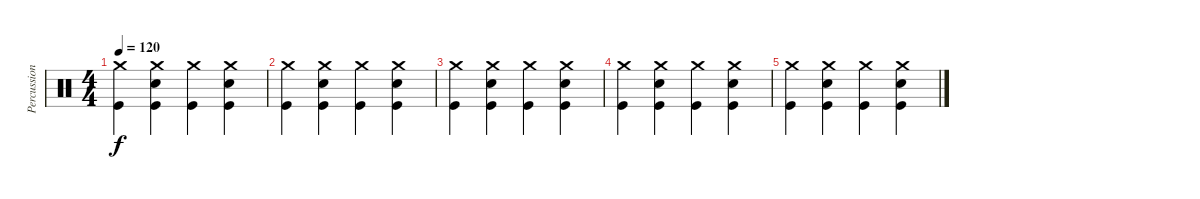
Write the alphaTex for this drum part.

\track ("Percussion" "Percussion") {instrument percussion}
\staff {score}
\articulation defaults
\ts (4 4)
\tempo 120
\clef neutral
\ks c
("Crash medium (hit)" "Kick (hit)").4{dy f} ("Crash medium (hit)" "Snare (hit) 2" "Kick (hit)").4 ("Crash medium (hit)" "Kick (hit)").4 ("Crash medium (hit)" "Snare (hit) 2" "Kick (hit)").4 |
("Crash medium (hit)" "Kick (hit)").4{volume 1} ("Crash medium (hit)" "Snare (hit) 2" "Kick (hit)").4 ("Crash medium (hit)" "Kick (hit)").4 ("Crash medium (hit)" "Snare (hit) 2" "Kick (hit)").4 |
("Crash medium (hit)" "Kick (hit)").4 ("Crash medium (hit)" "Snare (hit) 2" "Kick (hit)").4 ("Crash medium (hit)" "Kick (hit)").4 ("Crash medium (hit)" "Snare (hit) 2" "Kick (hit)").4 |
("Crash medium (hit)" "Kick (hit)").4{volume 0} ("Crash medium (hit)" "Snare (hit) 2" "Kick (hit)").4 ("Crash medium (hit)" "Kick (hit)").4 ("Crash medium (hit)" "Snare (hit) 2" "Kick (hit)").4 |
("Crash medium (hit)" "Kick (hit)").4 ("Crash medium (hit)" "Snare (hit) 2" "Kick (hit)").4 ("Crash medium (hit)" "Kick (hit)").4 ("Crash medium (hit)" "Snare (hit) 2" "Kick (hit)").4
